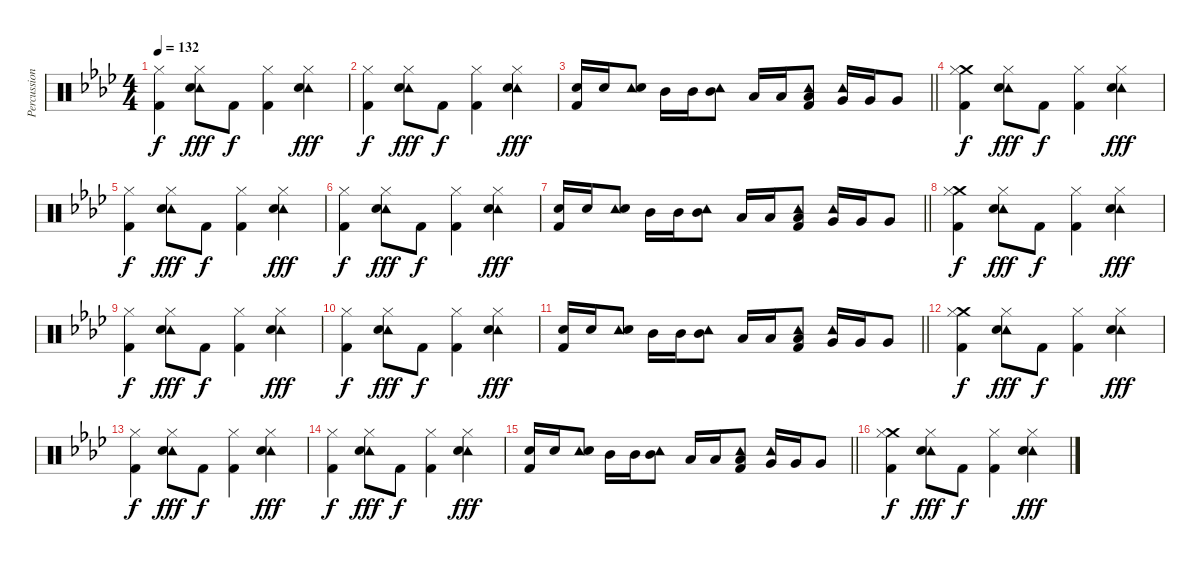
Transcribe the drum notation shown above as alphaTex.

\track ("Percussion - Nigel Olsen/Ray Cooper" "Percussion") {instrument percussion}
\staff {score}
\articulation defaults
\ts (4 4)
\tempo 132
\clef neutral
\ks ab
("Hi-Hat (closed)" "Kick (hit) 2").4{dy f} ("Tambourine (hit)" "Hi-Hat (closed)" "Snare (hit) 2").8{dy fff} "Kick (hit) 2".8{dy f} ("Hi-Hat (closed)" "Kick (hit) 2").4 ("Tambourine (hit)" "Hi-Hat (closed)" "Snare (hit) 2").4{dy fff} |
("Hi-Hat (closed)" "Kick (hit) 2").4{dy f} ("Tambourine (hit)" "Hi-Hat (closed)" "Snare (hit) 2").8{dy fff} "Kick (hit) 2".8{dy f} ("Hi-Hat (closed)" "Kick (hit) 2").4 ("Tambourine (hit)" "Hi-Hat (closed)" "Snare (hit) 2").4{dy fff} |
\barLineRight lightlight
("Snare (hit) 2" "Kick (hit) 2").16 "Snare (hit) 2".16 ("Tambourine (hit)" "Snare (hit) 2").8 "Mid Tom (hit)".16 "Mid Tom (hit)".16 ("Tambourine (hit)" "Mid Tom (hit)").8 "Low Tom (hit)".16 "Low Tom (hit)".16 ("Tambourine (hit)" "Low Tom (hit)" "Kick (hit) 2").8 ("Tambourine (hit)" "Very Low Tom (hit)").16 "Very Low Tom (hit)".16 "Very Low Tom (hit)".8 |
("Crash medium (hit)" "Hi-Hat (closed)" "Kick (hit) 2").4{dy f} ("Tambourine (hit)" "Hi-Hat (closed)" "Snare (hit) 2").8{dy fff} "Kick (hit) 2".8{dy f} ("Hi-Hat (closed)" "Kick (hit) 2").4 ("Tambourine (hit)" "Hi-Hat (closed)" "Snare (hit) 2").4{dy fff} |
("Hi-Hat (closed)" "Kick (hit) 2").4{dy f} ("Tambourine (hit)" "Hi-Hat (closed)" "Snare (hit) 2").8{dy fff} "Kick (hit) 2".8{dy f} ("Hi-Hat (closed)" "Kick (hit) 2").4 ("Tambourine (hit)" "Hi-Hat (closed)" "Snare (hit) 2").4{dy fff} |
("Hi-Hat (closed)" "Kick (hit) 2").4{dy f} ("Tambourine (hit)" "Hi-Hat (closed)" "Snare (hit) 2").8{dy fff} "Kick (hit) 2".8{dy f} ("Hi-Hat (closed)" "Kick (hit) 2").4 ("Tambourine (hit)" "Hi-Hat (closed)" "Snare (hit) 2").4{dy fff} |
\barLineRight lightlight
("Snare (hit) 2" "Kick (hit) 2").16 "Snare (hit) 2".16 ("Tambourine (hit)" "Snare (hit) 2").8 "Mid Tom (hit)".16 "Mid Tom (hit)".16 ("Tambourine (hit)" "Mid Tom (hit)").8 "Low Tom (hit)".16 "Low Tom (hit)".16 ("Tambourine (hit)" "Low Tom (hit)" "Kick (hit) 2").8 ("Tambourine (hit)" "Very Low Tom (hit)").16 "Very Low Tom (hit)".16 "Very Low Tom (hit)".8 |
("Crash medium (hit)" "Hi-Hat (closed)" "Kick (hit) 2").4{dy f} ("Tambourine (hit)" "Hi-Hat (closed)" "Snare (hit) 2").8{dy fff} "Kick (hit) 2".8{dy f} ("Hi-Hat (closed)" "Kick (hit) 2").4 ("Tambourine (hit)" "Hi-Hat (closed)" "Snare (hit) 2").4{dy fff} |
("Hi-Hat (closed)" "Kick (hit) 2").4{dy f} ("Tambourine (hit)" "Hi-Hat (closed)" "Snare (hit) 2").8{dy fff} "Kick (hit) 2".8{dy f} ("Hi-Hat (closed)" "Kick (hit) 2").4 ("Tambourine (hit)" "Hi-Hat (closed)" "Snare (hit) 2").4{dy fff} |
("Hi-Hat (closed)" "Kick (hit) 2").4{dy f} ("Tambourine (hit)" "Hi-Hat (closed)" "Snare (hit) 2").8{dy fff} "Kick (hit) 2".8{dy f} ("Hi-Hat (closed)" "Kick (hit) 2").4 ("Tambourine (hit)" "Hi-Hat (closed)" "Snare (hit) 2").4{dy fff} |
\barLineRight lightlight
("Snare (hit) 2" "Kick (hit) 2").16 "Snare (hit) 2".16 ("Tambourine (hit)" "Snare (hit) 2").8 "Mid Tom (hit)".16 "Mid Tom (hit)".16 ("Tambourine (hit)" "Mid Tom (hit)").8 "Low Tom (hit)".16 "Low Tom (hit)".16 ("Tambourine (hit)" "Low Tom (hit)" "Kick (hit) 2").8 ("Tambourine (hit)" "Very Low Tom (hit)").16 "Very Low Tom (hit)".16 "Very Low Tom (hit)".8 |
("Crash medium (hit)" "Hi-Hat (closed)" "Kick (hit) 2").4{dy f} ("Tambourine (hit)" "Hi-Hat (closed)" "Snare (hit) 2").8{dy fff} "Kick (hit) 2".8{dy f} ("Hi-Hat (closed)" "Kick (hit) 2").4 ("Tambourine (hit)" "Hi-Hat (closed)" "Snare (hit) 2").4{dy fff} |
("Hi-Hat (closed)" "Kick (hit) 2").4{dy f} ("Tambourine (hit)" "Hi-Hat (closed)" "Snare (hit) 2").8{dy fff} "Kick (hit) 2".8{dy f} ("Hi-Hat (closed)" "Kick (hit) 2").4 ("Tambourine (hit)" "Hi-Hat (closed)" "Snare (hit) 2").4{dy fff} |
("Hi-Hat (closed)" "Kick (hit) 2").4{dy f} ("Tambourine (hit)" "Hi-Hat (closed)" "Snare (hit) 2").8{dy fff} "Kick (hit) 2".8{dy f} ("Hi-Hat (closed)" "Kick (hit) 2").4 ("Tambourine (hit)" "Hi-Hat (closed)" "Snare (hit) 2").4{dy fff} |
\barLineRight lightlight
("Snare (hit) 2" "Kick (hit) 2").16 "Snare (hit) 2".16 ("Tambourine (hit)" "Snare (hit) 2").8 "Mid Tom (hit)".16 "Mid Tom (hit)".16 ("Tambourine (hit)" "Mid Tom (hit)").8 "Low Tom (hit)".16 "Low Tom (hit)".16 ("Tambourine (hit)" "Low Tom (hit)" "Kick (hit) 2").8 ("Tambourine (hit)" "Very Low Tom (hit)").16 "Very Low Tom (hit)".16 "Very Low Tom (hit)".8 |
("Crash medium (hit)" "Hi-Hat (closed)" "Kick (hit) 2").4{dy f} ("Tambourine (hit)" "Hi-Hat (closed)" "Snare (hit) 2").8{dy fff} "Kick (hit) 2".8{dy f} ("Hi-Hat (closed)" "Kick (hit) 2").4 ("Tambourine (hit)" "Hi-Hat (closed)" "Snare (hit) 2").4{dy fff}
